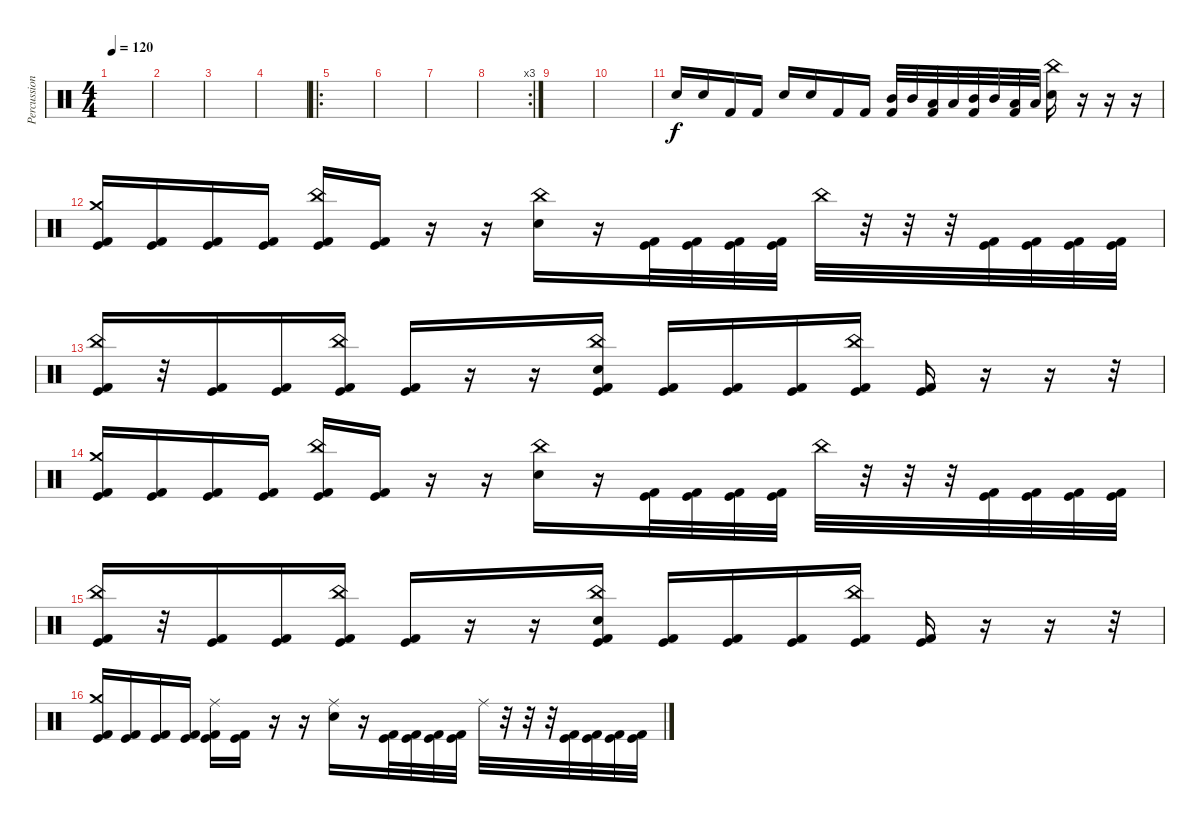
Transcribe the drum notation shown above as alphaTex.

\track ("Percussion" "Percussion") {instrument percussion}
\staff {score}
\articulation defaults
\ts (4 4)
\tempo 120
\clef neutral
\ks c
|
|
|
|
\ro
|
|
|
\rc 3
|
|
|
"Electric Snare (hit)".16{dy f} "Electric Snare (hit)".16 "Kick (hit) 2".16 "Kick (hit) 2".16 "Electric Snare (hit)".16 "Electric Snare (hit)".16 "Kick (hit) 2".16 "Kick (hit) 2".16 ("Mid Tom (hit)" "Kick (hit) 2").32 "Mid Tom (hit)".32 ("Low Tom (hit)" "Kick (hit) 2").32 "Low Tom (hit)".32 ("Mid Tom (hit)" "Kick (hit) 2").32 "Mid Tom (hit)".32 ("Low Tom (hit)" "Kick (hit) 2").32 "Low Tom (hit)".32 ("China (hit)" "Electric Snare (hit)").16 r.16 r.16 r.16 |
("Crash medium (hit)" "Kick (hit)" "Kick (hit) 2").16 ("Kick (hit)" "Kick (hit) 2").16 ("Kick (hit)" "Kick (hit) 2").16 ("Kick (hit)" "Kick (hit) 2").16 ("China (hit)" "Kick (hit)" "Kick (hit) 2").16 ("Kick (hit)" "Kick (hit) 2").16 r.16 r.16 ("China (hit)" "Electric Snare (hit)").16 r.16 ("Kick (hit)" "Kick (hit) 2").32 ("Kick (hit)" "Kick (hit) 2").32 ("Kick (hit)" "Kick (hit) 2").32 ("Kick (hit)" "Kick (hit) 2").32 "China (hit)".32 r.32 r.32 r.32 ("Kick (hit)" "Kick (hit) 2").32 ("Kick (hit)" "Kick (hit) 2").32 ("Kick (hit)" "Kick (hit) 2").32 ("Kick (hit)" "Kick (hit) 2").32 |
("China (hit)" "Kick (hit)" "Kick (hit) 2").16 r.32 ("Kick (hit)" "Kick (hit) 2").16 ("Kick (hit)" "Kick (hit) 2").16 ("China (hit)" "Kick (hit)" "Kick (hit) 2").16 ("Kick (hit)" "Kick (hit) 2").16 r.16 r.16 ("China (hit)" "Electric Snare (hit)" "Kick (hit)" "Kick (hit) 2").16 ("Kick (hit)" "Kick (hit) 2").16 ("Kick (hit)" "Kick (hit) 2").16 ("Kick (hit)" "Kick (hit) 2").16 ("China (hit)" "Kick (hit)" "Kick (hit) 2").16 ("Kick (hit)" "Kick (hit) 2").16 r.16 r.16 r.32 |
("Crash medium (hit)" "Kick (hit)" "Kick (hit) 2").16 ("Kick (hit)" "Kick (hit) 2").16 ("Kick (hit)" "Kick (hit) 2").16 ("Kick (hit)" "Kick (hit) 2").16 ("China (hit)" "Kick (hit)" "Kick (hit) 2").16 ("Kick (hit)" "Kick (hit) 2").16 r.16 r.16 ("China (hit)" "Electric Snare (hit)").16 r.16 ("Kick (hit)" "Kick (hit) 2").32 ("Kick (hit)" "Kick (hit) 2").32 ("Kick (hit)" "Kick (hit) 2").32 ("Kick (hit)" "Kick (hit) 2").32 "China (hit)".32 r.32 r.32 r.32 ("Kick (hit)" "Kick (hit) 2").32 ("Kick (hit)" "Kick (hit) 2").32 ("Kick (hit)" "Kick (hit) 2").32 ("Kick (hit)" "Kick (hit) 2").32 |
("China (hit)" "Kick (hit)" "Kick (hit) 2").16 r.32 ("Kick (hit)" "Kick (hit) 2").16 ("Kick (hit)" "Kick (hit) 2").16 ("China (hit)" "Kick (hit)" "Kick (hit) 2").16 ("Kick (hit)" "Kick (hit) 2").16 r.16 r.16 ("China (hit)" "Electric Snare (hit)" "Kick (hit)" "Kick (hit) 2").16 ("Kick (hit)" "Kick (hit) 2").16 ("Kick (hit)" "Kick (hit) 2").16 ("Kick (hit)" "Kick (hit) 2").16 ("China (hit)" "Kick (hit)" "Kick (hit) 2").16 ("Kick (hit)" "Kick (hit) 2").16 r.16 r.16 r.32 |
("Crash medium (hit)" "Kick (hit)" "Kick (hit) 2").16 ("Kick (hit)" "Kick (hit) 2").16 ("Kick (hit)" "Kick (hit) 2").16 ("Kick (hit)" "Kick (hit) 2").16 ("Ride (middle)" "Kick (hit)" "Kick (hit) 2").16 ("Kick (hit)" "Kick (hit) 2").16 r.16 r.16 ("Ride (middle)" "Electric Snare (hit)").16 r.16 ("Kick (hit)" "Kick (hit) 2").32 ("Kick (hit)" "Kick (hit) 2").32 ("Kick (hit)" "Kick (hit) 2").32 ("Kick (hit)" "Kick (hit) 2").32 "Ride (middle)".32 r.32 r.32 r.32 ("Kick (hit)" "Kick (hit) 2").32 ("Kick (hit)" "Kick (hit) 2").32 ("Kick (hit)" "Kick (hit) 2").32 ("Kick (hit)" "Kick (hit) 2").32
